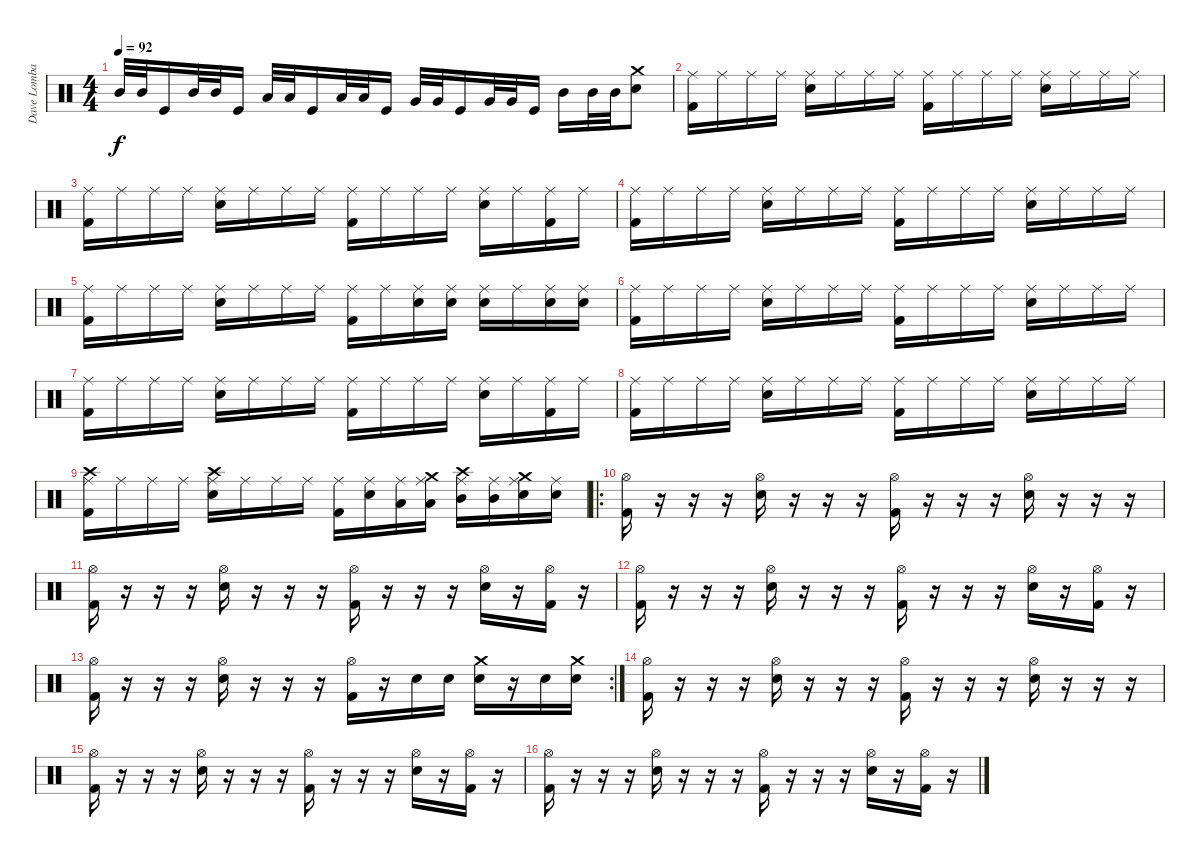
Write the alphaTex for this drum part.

\track ("Dave Lombardo" "Dave Lomba") {instrument percussion}
\staff {score}
\articulation defaults
\ts (4 4)
\tempo 92
\clef neutral
\ks c "Mid Tom (hit)".32{dy f} "Mid Tom (hit)".32 "Kick (hit)".16 "Mid Tom (hit)".32 "Mid Tom (hit)".32 "Kick (hit)".16 "Low Tom (hit)".32 "Low Tom (hit)".32 "Kick (hit)".16 "Low Tom (hit)".32 "Low Tom (hit)".32 "Kick (hit)".16 "Very Low Tom (hit)".32 "Very Low Tom (hit)".32 "Kick (hit)".16 "Very Low Tom (hit)".32 "Very Low Tom (hit)".32 "Kick (hit)".16 "Mid Tom (hit)".16 "Mid Tom (hit)".32 "Mid Tom (hit)".32
("Crash medium (hit)" "Electric Snare (hit)").8 |
("Kick (hit) 2" "Ride (middle)").16 "Ride (middle)".16 "Ride (middle)".16 "Ride (middle)".16 ("Electric Snare (hit)" "Ride (middle)").16 "Ride (middle)".16 "Ride (middle)".16 "Ride (middle)".16 ("Kick (hit) 2" "Ride (middle)").16 "Ride (middle)".16 "Ride (middle)".16 "Ride (middle)".16 ("Electric Snare (hit)" "Ride (middle)").16 "Ride (middle)".16 "Ride (middle)".16 "Ride (middle)".16 |
("Kick (hit) 2" "Ride (middle)").16 "Ride (middle)".16 "Ride (middle)".16 "Ride (middle)".16 ("Electric Snare (hit)" "Ride (middle)").16 "Ride (middle)".16 "Ride (middle)".16 "Ride (middle)".16 ("Kick (hit) 2" "Ride (middle)").16 "Ride (middle)".16 "Ride (middle)".16 "Ride (middle)".16 ("Electric Snare (hit)" "Ride (middle)").16 "Ride (middle)".16 ("Kick (hit) 2" "Ride (middle)").16 "Ride (middle)".16 |
("Kick (hit) 2" "Ride (middle)").16 "Ride (middle)".16 "Ride (middle)".16 "Ride (middle)".16 ("Electric Snare (hit)" "Ride (middle)").16 "Ride (middle)".16 "Ride (middle)".16 "Ride (middle)".16 ("Kick (hit) 2" "Ride (middle)").16 "Ride (middle)".16 "Ride (middle)".16 "Ride (middle)".16 ("Electric Snare (hit)" "Ride (middle)").16 "Ride (middle)".16 "Ride (middle)".16 "Ride (middle)".16 |
("Kick (hit) 2" "Ride (middle)").16 "Ride (middle)".16 "Ride (middle)".16 "Ride (middle)".16 ("Electric Snare (hit)" "Ride (middle)").16 "Ride (middle)".16 "Ride (middle)".16 "Ride (middle)".16 ("Kick (hit) 2" "Ride (middle)").16 "Ride (middle)".16 ("Snare (hit) 2" "Ride (middle)").16 ("Snare (hit) 2" "Ride (middle)").16 ("Electric Snare (hit)" "Ride (middle)").16 "Ride (middle)".16 ("Electric Snare (hit)" "Ride (middle)").16 ("Electric Snare (hit)" "Ride (middle)").16 |
("Kick (hit) 2" "Ride (middle)").16 "Ride (middle)".16 "Ride (middle)".16 "Ride (middle)".16 ("Electric Snare (hit)" "Ride (middle)").16 "Ride (middle)".16 "Ride (middle)".16 "Ride (middle)".16 ("Kick (hit) 2" "Ride (middle)").16 "Ride (middle)".16 "Ride (middle)".16 "Ride (middle)".16 ("Electric Snare (hit)" "Ride (middle)").16 "Ride (middle)".16 "Ride (middle)".16 "Ride (middle)".16 |
("Kick (hit) 2" "Ride (middle)").16 "Ride (middle)".16 "Ride (middle)".16 "Ride (middle)".16 ("Electric Snare (hit)" "Ride (middle)").16 "Ride (middle)".16 "Ride (middle)".16 "Ride (middle)".16 ("Kick (hit) 2" "Ride (middle)").16 "Ride (middle)".16 "Ride (middle)".16 "Ride (middle)".16 ("Electric Snare (hit)" "Ride (middle)").16 "Ride (middle)".16 ("Kick (hit) 2" "Ride (middle)").16 "Ride (middle)".16 |
("Kick (hit) 2" "Ride (middle)").16 "Ride (middle)".16 "Ride (middle)".16 "Ride (middle)".16 ("Electric Snare (hit)" "Ride (middle)").16 "Ride (middle)".16 "Ride (middle)".16 "Ride (middle)".16 ("Kick (hit) 2" "Ride (middle)").16 "Ride (middle)".16 "Ride (middle)".16 "Ride (middle)".16 ("Electric Snare (hit)" "Ride (middle)").16 "Ride (middle)".16 "Ride (middle)".16 "Ride (middle)".16 |
("Kick (hit) 2" "Crash high (hit)" "Ride (middle)").16 "Ride (middle)".16 "Ride (middle)".16 "Ride (middle)".16 ("Electric Snare (hit)" "Crash high (hit)" "Ride (middle)").16 "Ride (middle)".16 "Ride (middle)".16 "Ride (middle)".16 ("Kick (hit) 2" "Ride (middle)").16 ("Electric Snare (hit)" "Ride (middle)").16 ("Low Tom (hit)" "Ride (middle)").16 ("Low Tom (hit)" "Crash medium (hit)" "Ride (middle)").16 ("Mid Tom (hit)" "Crash high (hit)" "Ride (middle)").16 ("Mid Tom (hit)" "Ride (middle)").16 ("Electric Snare (hit)" "Crash medium (hit)" "Ride (middle)").16 ("Electric Snare (hit)" "Ride (middle)").16 |
\ro
("Kick (hit) 2" "Hi-Hat (open)").16 r.16 r.16 r.16 ("Electric Snare (hit)" "Hi-Hat (open)").16 r.16 r.16 r.16 ("Kick (hit) 2" "Hi-Hat (open)").16 r.16 r.16 r.16 ("Electric Snare (hit)" "Hi-Hat (open)").16 r.16 r.16 r.16 |
("Kick (hit) 2" "Hi-Hat (open)").16 r.16 r.16 r.16 ("Electric Snare (hit)" "Hi-Hat (open)").16 r.16 r.16 r.16 ("Kick (hit) 2" "Hi-Hat (open)").16 r.16 r.16 r.16 ("Electric Snare (hit)" "Hi-Hat (open)").16 r.16 ("Kick (hit) 2" "Hi-Hat (open)").16 r.16 |
("Kick (hit) 2" "Hi-Hat (open)").16 r.16 r.16 r.16 ("Electric Snare (hit)" "Hi-Hat (open)").16 r.16 r.16 r.16 ("Kick (hit) 2" "Hi-Hat (open)").16 r.16 r.16 r.16 ("Electric Snare (hit)" "Hi-Hat (open)").16 r.16 ("Kick (hit) 2" "Hi-Hat (open)").16 r.16 |
\rc 2
("Kick (hit) 2" "Hi-Hat (open)").16 r.16 r.16 r.16 ("Electric Snare (hit)" "Hi-Hat (open)").16 r.16 r.16 r.16 ("Kick (hit) 2" "Hi-Hat (open)").16 r.16 "Snare (hit) 2".16 "Snare (hit) 2".16 ("Electric Snare (hit)" "Crash medium (hit)").16 r.16 "Electric Snare (hit)".16 ("Electric Snare (hit)" "Crash medium (hit)").16 |
("Kick (hit) 2" "Hi-Hat (open)").16 r.16 r.16 r.16 ("Electric Snare (hit)" "Hi-Hat (open)").16 r.16 r.16 r.16 ("Kick (hit) 2" "Hi-Hat (open)").16 r.16 r.16 r.16 ("Electric Snare (hit)" "Hi-Hat (open)").16 r.16 r.16 r.16 |
("Kick (hit) 2" "Hi-Hat (open)").16 r.16 r.16 r.16 ("Electric Snare (hit)" "Hi-Hat (open)").16 r.16 r.16 r.16 ("Kick (hit) 2" "Hi-Hat (open)").16 r.16 r.16 r.16 ("Electric Snare (hit)" "Hi-Hat (open)").16 r.16 ("Kick (hit) 2" "Hi-Hat (open)").16 r.16 |
("Kick (hit) 2" "Hi-Hat (open)").16 r.16 r.16 r.16 ("Electric Snare (hit)" "Hi-Hat (open)").16 r.16 r.16 r.16 ("Kick (hit) 2" "Hi-Hat (open)").16 r.16 r.16 r.16 ("Electric Snare (hit)" "Hi-Hat (open)").16 r.16 ("Kick (hit) 2" "Hi-Hat (open)").16 r.16
